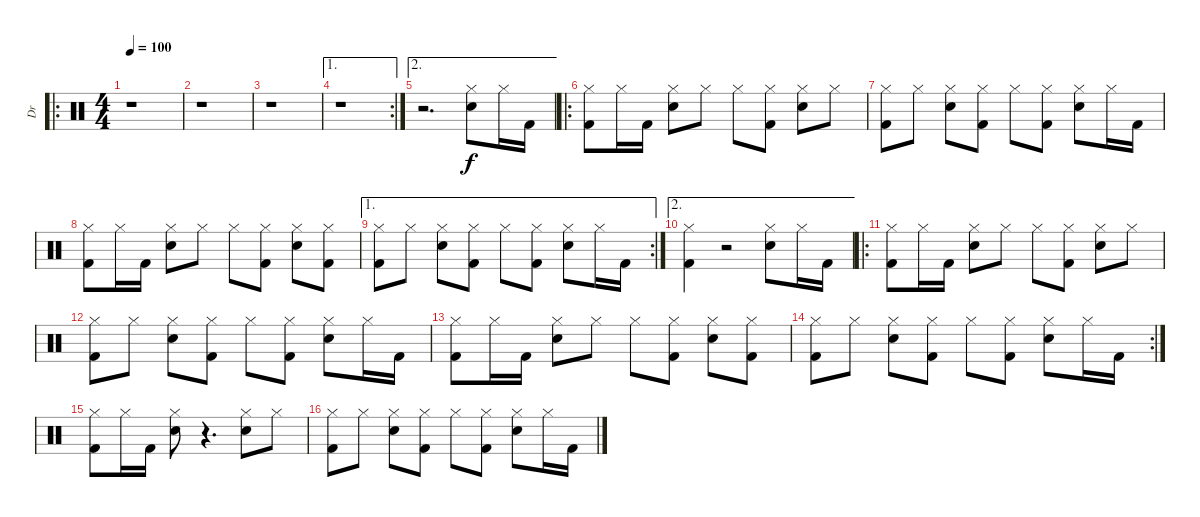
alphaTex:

\track ("Dr" "Dr") {instrument percussion}
\staff {score}
\articulation defaults
\ro
\ts (4 4)
\tempo 100
\clef neutral
\ks c
r.1{dy f volume 16} |
r.1 |
r.1 |
\ae 1
\rc 2
r.1 |
\ae 2
r.2{d} ("Hi-Hat (closed)" "Electric Snare (hit)").8 "Hi-Hat (closed)".16 "Kick (hit) 2".16 |
\ro
("Hi-Hat (closed)" "Kick (hit) 2").8 "Hi-Hat (closed)".16 "Kick (hit) 2".16 ("Hi-Hat (closed)" "Electric Snare (hit)").8 "Hi-Hat (closed)".8 "Hi-Hat (closed)".8 ("Hi-Hat (closed)" "Kick (hit) 2").8 ("Hi-Hat (closed)" "Electric Snare (hit)").8 "Hi-Hat (closed)".8 |
("Hi-Hat (closed)" "Kick (hit) 2").8 "Hi-Hat (closed)".8 ("Hi-Hat (closed)" "Electric Snare (hit)").8 ("Hi-Hat (closed)" "Kick (hit) 2").8 "Hi-Hat (closed)".8 ("Hi-Hat (closed)" "Kick (hit) 2").8 ("Hi-Hat (closed)" "Electric Snare (hit)").8 "Hi-Hat (closed)".16 "Kick (hit) 2".16 |
("Hi-Hat (closed)" "Kick (hit) 2").8 "Hi-Hat (closed)".16 "Kick (hit) 2".16 ("Hi-Hat (closed)" "Electric Snare (hit)").8 "Hi-Hat (closed)".8 "Hi-Hat (closed)".8 ("Hi-Hat (closed)" "Kick (hit) 2").8 ("Hi-Hat (closed)" "Electric Snare (hit)").8 ("Hi-Hat (closed)" "Kick (hit) 2").8 |
\ae 1
\rc 2
("Hi-Hat (closed)" "Kick (hit) 2").8 "Hi-Hat (closed)".8 ("Hi-Hat (closed)" "Electric Snare (hit)").8 ("Hi-Hat (closed)" "Kick (hit) 2").8 "Hi-Hat (closed)".8 ("Hi-Hat (closed)" "Kick (hit) 2").8 ("Hi-Hat (closed)" "Electric Snare (hit)").8 "Hi-Hat (closed)".16 "Kick (hit) 2".16 |
\ae 2
("Hi-Hat (closed)" "Kick (hit) 2").4 r.2 ("Hi-Hat (closed)" "Electric Snare (hit)").8 "Hi-Hat (closed)".16 "Kick (hit) 2".16 |
\ro
("Hi-Hat (closed)" "Kick (hit) 2").8 "Hi-Hat (closed)".16 "Kick (hit) 2".16 ("Hi-Hat (closed)" "Electric Snare (hit)").8 "Hi-Hat (closed)".8 "Hi-Hat (closed)".8 ("Hi-Hat (closed)" "Kick (hit) 2").8 ("Hi-Hat (closed)" "Electric Snare (hit)").8 "Hi-Hat (closed)".8 |
("Hi-Hat (closed)" "Kick (hit) 2").8 "Hi-Hat (closed)".8 ("Hi-Hat (closed)" "Electric Snare (hit)").8 ("Hi-Hat (closed)" "Kick (hit) 2").8 "Hi-Hat (closed)".8 ("Hi-Hat (closed)" "Kick (hit) 2").8 ("Hi-Hat (closed)" "Electric Snare (hit)").8 "Hi-Hat (closed)".16 "Kick (hit) 2".16 |
("Hi-Hat (closed)" "Kick (hit) 2").8 "Hi-Hat (closed)".16 "Kick (hit) 2".16 ("Hi-Hat (closed)" "Electric Snare (hit)").8 "Hi-Hat (closed)".8 "Hi-Hat (closed)".8 ("Hi-Hat (closed)" "Kick (hit) 2").8 ("Hi-Hat (closed)" "Electric Snare (hit)").8 ("Hi-Hat (closed)" "Kick (hit) 2").8 |
\rc 2
("Hi-Hat (closed)" "Kick (hit) 2").8 "Hi-Hat (closed)".8 ("Hi-Hat (closed)" "Electric Snare (hit)").8 ("Hi-Hat (closed)" "Kick (hit) 2").8 "Hi-Hat (closed)".8 ("Hi-Hat (closed)" "Kick (hit) 2").8 ("Hi-Hat (closed)" "Electric Snare (hit)").8 "Hi-Hat (closed)".16 "Kick (hit) 2".16 |
("Hi-Hat (closed)" "Kick (hit) 2").8 "Hi-Hat (closed)".16 "Kick (hit) 2".16 ("Hi-Hat (closed)" "Electric Snare (hit)").8 r.4{d} ("Hi-Hat (closed)" "Electric Snare (hit)").8 "Hi-Hat (closed)".8 |
("Hi-Hat (closed)" "Kick (hit) 2").8 "Hi-Hat (closed)".8 ("Hi-Hat (closed)" "Electric Snare (hit)").8 ("Hi-Hat (closed)" "Kick (hit) 2").8 "Hi-Hat (closed)".8 ("Hi-Hat (closed)" "Kick (hit) 2").8 ("Hi-Hat (closed)" "Electric Snare (hit)").8 "Hi-Hat (closed)".16 "Kick (hit) 2".16
